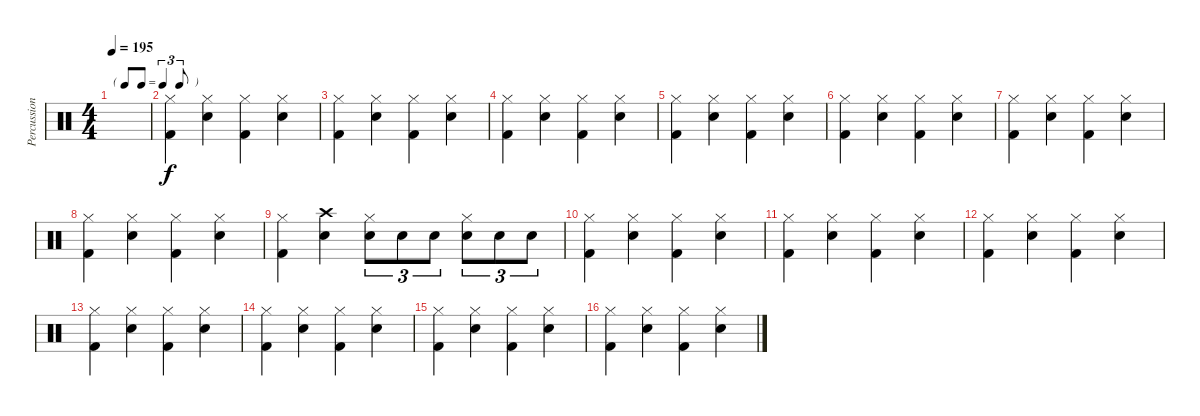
\track ("Percussions" "Percussion") {instrument percussion}
\staff {score}
\articulation defaults
\ts (4 4)
\tf triplet8th
\tempo 195
\clef neutral
\ks c
|
("Hi-Hat (closed)" "Kick (hit) 2").4 ("Snare (hit) 2" "Hi-Hat (closed)").4 ("Hi-Hat (closed)" "Kick (hit) 2").4 ("Snare (hit) 2" "Hi-Hat (closed)").4 |
("Hi-Hat (closed)" "Kick (hit) 2").4 ("Snare (hit) 2" "Hi-Hat (closed)").4 ("Hi-Hat (closed)" "Kick (hit) 2").4 ("Snare (hit) 2" "Hi-Hat (closed)").4 |
("Hi-Hat (closed)" "Kick (hit) 2").4 ("Snare (hit) 2" "Hi-Hat (closed)").4 ("Hi-Hat (closed)" "Kick (hit) 2").4 ("Snare (hit) 2" "Hi-Hat (closed)").4 |
("Hi-Hat (closed)" "Kick (hit) 2").4 ("Snare (hit) 2" "Hi-Hat (closed)").4 ("Hi-Hat (closed)" "Kick (hit) 2").4 ("Snare (hit) 2" "Hi-Hat (closed)").4 |
("Hi-Hat (closed)" "Kick (hit) 2").4 ("Snare (hit) 2" "Hi-Hat (closed)").4 ("Hi-Hat (closed)" "Kick (hit) 2").4 ("Snare (hit) 2" "Hi-Hat (closed)").4 |
("Hi-Hat (closed)" "Kick (hit) 2").4 ("Snare (hit) 2" "Hi-Hat (closed)").4 ("Hi-Hat (closed)" "Kick (hit) 2").4 ("Snare (hit) 2" "Hi-Hat (closed)").4 |
("Hi-Hat (closed)" "Kick (hit) 2").4 ("Snare (hit) 2" "Hi-Hat (closed)").4 ("Hi-Hat (closed)" "Kick (hit) 2").4 ("Snare (hit) 2" "Hi-Hat (closed)").4 |
("Hi-Hat (closed)" "Kick (hit) 2").4 ("Snare (hit) 2" "Crash high (hit)").4 ("Snare (hit) 2" "Hi-Hat (closed)").8{tu (3 2)} "Snare (hit) 2".8{tu (3 2)} "Snare (hit) 2".8{tu (3 2)} ("Snare (hit) 2" "Hi-Hat (closed)").8{tu (3 2)} "Snare (hit) 2".8{tu (3 2)} "Snare (hit) 2".8{tu (3 2)} |
("Hi-Hat (closed)" "Kick (hit) 2").4 ("Snare (hit) 2" "Hi-Hat (closed)").4 ("Hi-Hat (closed)" "Kick (hit) 2").4 ("Snare (hit) 2" "Hi-Hat (closed)").4 |
("Hi-Hat (closed)" "Kick (hit) 2").4 ("Snare (hit) 2" "Hi-Hat (closed)").4 ("Hi-Hat (closed)" "Kick (hit) 2").4 ("Snare (hit) 2" "Hi-Hat (closed)").4 |
("Hi-Hat (closed)" "Kick (hit) 2").4 ("Snare (hit) 2" "Hi-Hat (closed)").4 ("Hi-Hat (closed)" "Kick (hit) 2").4 ("Snare (hit) 2" "Hi-Hat (closed)").4 |
("Hi-Hat (closed)" "Kick (hit) 2").4 ("Snare (hit) 2" "Hi-Hat (closed)").4 ("Hi-Hat (closed)" "Kick (hit) 2").4 ("Snare (hit) 2" "Hi-Hat (closed)").4 |
("Hi-Hat (closed)" "Kick (hit) 2").4 ("Snare (hit) 2" "Hi-Hat (closed)").4 ("Hi-Hat (closed)" "Kick (hit) 2").4 ("Snare (hit) 2" "Hi-Hat (closed)").4 |
("Hi-Hat (closed)" "Kick (hit) 2").4 ("Snare (hit) 2" "Hi-Hat (closed)").4 ("Hi-Hat (closed)" "Kick (hit) 2").4 ("Snare (hit) 2" "Hi-Hat (closed)").4 |
("Hi-Hat (closed)" "Kick (hit) 2").4 ("Snare (hit) 2" "Hi-Hat (closed)").4 ("Hi-Hat (closed)" "Kick (hit) 2").4 ("Snare (hit) 2" "Hi-Hat (closed)").4
